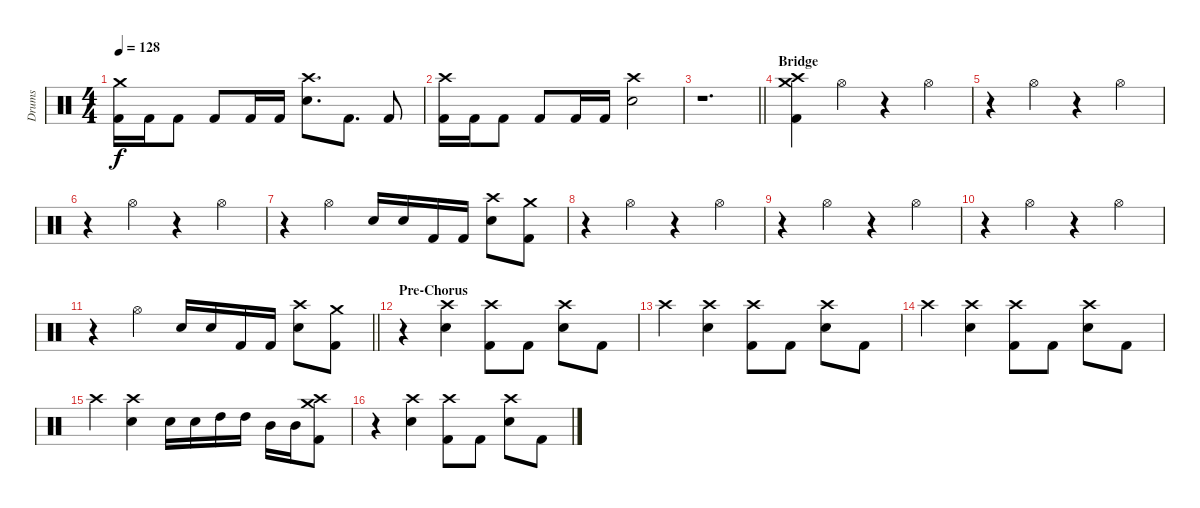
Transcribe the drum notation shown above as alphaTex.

\track ("Drums" "Drums") {instrument percussion}
\staff {score}
\articulation defaults
\ts (4 4)
\tempo 128
\clef neutral
\ks c
("Kick (hit) 2" "Crash medium (hit)").16{dy f} "Kick (hit) 2".16 "Kick (hit) 2".8 "Kick (hit) 2".8 "Kick (hit) 2".16 "Kick (hit) 2".16 ("Snare (hit) 2" "Crash high (hit)").8{d} "Kick (hit) 2".8{d} "Kick (hit) 2".8 |
("Kick (hit) 2" "Crash high (hit)").16 "Kick (hit) 2".16 "Kick (hit) 2".8 "Kick (hit) 2".8 "Kick (hit) 2".16 "Kick (hit) 2".16 ("Snare (hit) 2" "Crash high (hit)").2 |
\barLineRight lightlight
r.1{d} |
\section ("" "Bridge")
("Kick (hit) 2" "Crash high (hit)" "Crash medium (hit)").4 "Hi-Hat (open)".4 r.4 "Hi-Hat (open)".4 |
r.4 "Hi-Hat (open)".4 r.4 "Hi-Hat (open)".4 |
r.4 "Hi-Hat (open)".4 r.4 "Hi-Hat (open)".4 |
r.4 "Hi-Hat (open)".4 "Snare (hit) 2".16 "Snare (hit) 2".16 "Kick (hit) 2".16 "Kick (hit) 2".16 ("Snare (hit) 2" "Crash high (hit)").8 ("Kick (hit) 2" "Crash medium (hit)").8 |
r.4 "Hi-Hat (open)".4 r.4 "Hi-Hat (open)".4 |
r.4 "Hi-Hat (open)".4 r.4 "Hi-Hat (open)".4 |
r.4 "Hi-Hat (open)".4 r.4 "Hi-Hat (open)".4 |
\barLineRight lightlight
r.4 "Hi-Hat (open)".4 "Snare (hit) 2".16 "Snare (hit) 2".16 "Kick (hit) 2".16 "Kick (hit) 2".16 ("Snare (hit) 2" "Crash high (hit)").8 ("Kick (hit) 2" "Crash medium (hit)").8 |
\section ("" "Pre-Chorus")
r.4 ("Snare (hit) 2" "Crash high (hit)").4 ("Kick (hit) 2" "Crash high (hit)").8 "Kick (hit) 2".8 ("Snare (hit) 2" "Crash high (hit)").8 "Kick (hit) 2".8 |
"Crash high (hit)".4 ("Snare (hit) 2" "Crash high (hit)").4 ("Kick (hit) 2" "Crash high (hit)").8 "Kick (hit) 2".8 ("Snare (hit) 2" "Crash high (hit)").8 "Kick (hit) 2".8 |
"Crash high (hit)".4 ("Snare (hit) 2" "Crash high (hit)").4 ("Kick (hit) 2" "Crash high (hit)").8 "Kick (hit) 2".8 ("Snare (hit) 2" "Crash high (hit)").8 "Kick (hit) 2".8 |
"Crash high (hit)".4 ("Snare (hit) 2" "Crash high (hit)").4 "Snare (hit) 2".16 "Snare (hit) 2".16 "High Tom (hit)".16 "High Tom (hit)".16 "Mid Tom (hit)".16 "Mid Tom (hit)".16 ("Kick (hit) 2" "Crash medium (hit)" "Crash high (hit)").8 |
r.4 ("Snare (hit) 2" "Crash high (hit)").4 ("Kick (hit) 2" "Crash high (hit)").8 "Kick (hit) 2".8 ("Snare (hit) 2" "Crash high (hit)").8 "Kick (hit) 2".8
